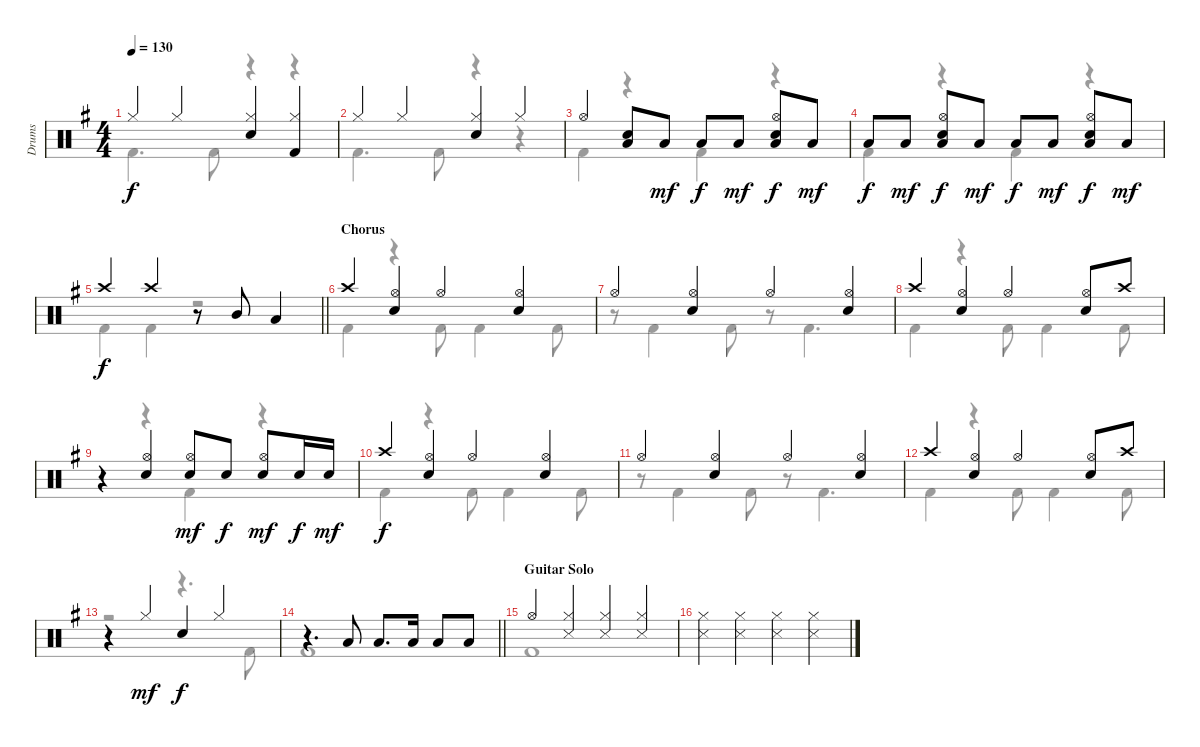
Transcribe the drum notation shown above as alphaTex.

\track ("Drums" "Drums") {instrument percussion}
\staff {score}
\articulation defaults
\voice
\ts (4 4)
\tempo 130
\clef neutral
\ks g "Hi-Hat (closed)".4{dy f} "Hi-Hat (closed)".4
("Hi-Hat (closed)" "Electric Snare (hit)").4 ("Hi-Hat (closed)" "Kick (hit) 2").4 |
"Hi-Hat (closed)".4 "Hi-Hat (closed)".4 ("Hi-Hat (closed)" "Electric Snare (hit)").4 "Hi-Hat (closed)".4 |
"Hi-Hat (open)".4 ("Low Floor Tom (hit)" "Electric Snare (hit)").8 "Low Floor Tom (hit)".8{dy mf} "Low Floor Tom (hit)".8{dy f} "Low Floor Tom (hit)".8{dy mf} ("Low Floor Tom (hit)" "Hi-Hat (open)" "Electric Snare (hit)").8{dy f} "Low Floor Tom (hit)".8{dy mf} |
"Low Floor Tom (hit)".8{dy f} "Low Floor Tom (hit)".8{dy mf} ("Low Floor Tom (hit)" "Hi-Hat (open)" "Electric Snare (hit)").8{dy f} "Low Floor Tom (hit)".8{dy mf} "Low Floor Tom (hit)".8{dy f} "Low Floor Tom (hit)".8{dy mf} ("Low Floor Tom (hit)" "Hi-Hat (open)" "Electric Snare (hit)").8{dy f} "Low Floor Tom (hit)".8{dy mf} |
\barLineRight lightlight "Crash high (hit)".4{dy f} "Crash high (hit)".4
r.8 "Mid Tom (hit)".8 "Low Tom (hit)".4 |
\section ("" "Chorus")
"Crash high (hit)".4 ("Hi-Hat (open)" "Electric Snare (hit)").4 "Hi-Hat (open)".4 ("Hi-Hat (open)" "Electric Snare (hit)").4 |
"Hi-Hat (open)".4 ("Hi-Hat (open)" "Electric Snare (hit)").4 "Hi-Hat (open)".4 ("Hi-Hat (open)" "Electric Snare (hit)").4 |
"Crash high (hit)".4 ("Hi-Hat (open)" "Electric Snare (hit)").4 "Hi-Hat (open)".4 ("Hi-Hat (open)" "Electric Snare (hit)").8 "Crash high (hit)".8 |
r.4 ("Hi-Hat (open)" "Electric Snare (hit)").4 ("Hi-Hat (open)" "Electric Snare (hit)").8{dy mf} "Electric Snare (hit)".8{dy f} ("Hi-Hat (open)" "Electric Snare (hit)").8{dy mf} "Electric Snare (hit)".16{dy f} "Electric Snare (hit)".16{dy mf} |
"Crash high (hit)".4{dy f} ("Hi-Hat (open)" "Electric Snare (hit)").4 "Hi-Hat (open)".4 ("Hi-Hat (open)" "Electric Snare (hit)").4 |
"Hi-Hat (open)".4 ("Hi-Hat (open)" "Electric Snare (hit)").4 "Hi-Hat (open)".4 ("Hi-Hat (open)" "Electric Snare (hit)").4 |
"Crash high (hit)".4 ("Hi-Hat (open)" "Electric Snare (hit)").4 "Hi-Hat (open)".4 ("Hi-Hat (open)" "Electric Snare (hit)").8 "Crash high (hit)".8 |
r.4 "Hi-Hat (closed)".4{dy mf} "Electric Snare (hit)".4{dy f} "Hi-Hat (closed)".4 |
\barLineRight lightlight
r.4{d} "Low Tom (hit)".8 "Low Tom (hit)".8{d} "Low Tom (hit)".16 "Low Tom (hit)".8 "Low Tom (hit)".8 |
\section ("" "Guitar Solo")
"Hi-Hat (open)".4 ("Hi-Hat (closed)" "Snare (side stick) 3").4 ("Hi-Hat (closed)" "Snare (side stick) 3").4 ("Hi-Hat (closed)" "Snare (side stick) 3").4 |
("Hi-Hat (closed)" "Snare (side stick) 3").4 ("Hi-Hat (closed)" "Snare (side stick) 3").4 ("Hi-Hat (closed)" "Snare (side stick) 3").4 ("Hi-Hat (closed)" "Snare (side stick) 3").4
\voice
\clef neutral
\ottava regular
\simile none
\ks g "Kick (hit) 2".4{d dy f} "Kick (hit) 2".8
r.4 r.4 |
"Kick (hit) 2".4{d} "Kick (hit) 2".8 r.4 r.4 |
"Kick (hit) 2".4 r.4 "Kick (hit) 2".4 r.4 |
"Kick (hit) 2".4 r.4 "Kick (hit) 2".4 r.4 |
\barLineRight lightlight "Kick (hit) 2".4 "Kick (hit) 2".4
r.2 |
"Kick (hit) 2".4 r.4 "Kick (hit) 2".8 "Kick (hit) 2".4 "Kick (hit) 2".8 |
r.8 "Kick (hit) 2".4 "Kick (hit) 2".8 r.8 "Kick (hit) 2".4{d} |
"Kick (hit) 2".4 r.4 "Kick (hit) 2".8 "Kick (hit) 2".4 "Kick (hit) 2".8 |
r.4 r.4 "Kick (hit) 2".4{dy mf} r.4 |
"Kick (hit) 2".4{dy f} r.4 "Kick (hit) 2".8 "Kick (hit) 2".4 "Kick (hit) 2".8 |
r.8 "Kick (hit) 2".4 "Kick (hit) 2".8 r.8 "Kick (hit) 2".4{d} |
"Kick (hit) 2".4 r.4 "Kick (hit) 2".8 "Kick (hit) 2".4 "Kick (hit) 2".8 |
r.2 r.4{d} "Kick (hit) 2".8 |
\barLineRight lightlight "Kick (hit) 2".1
|
"Kick (hit) 2".1 |
